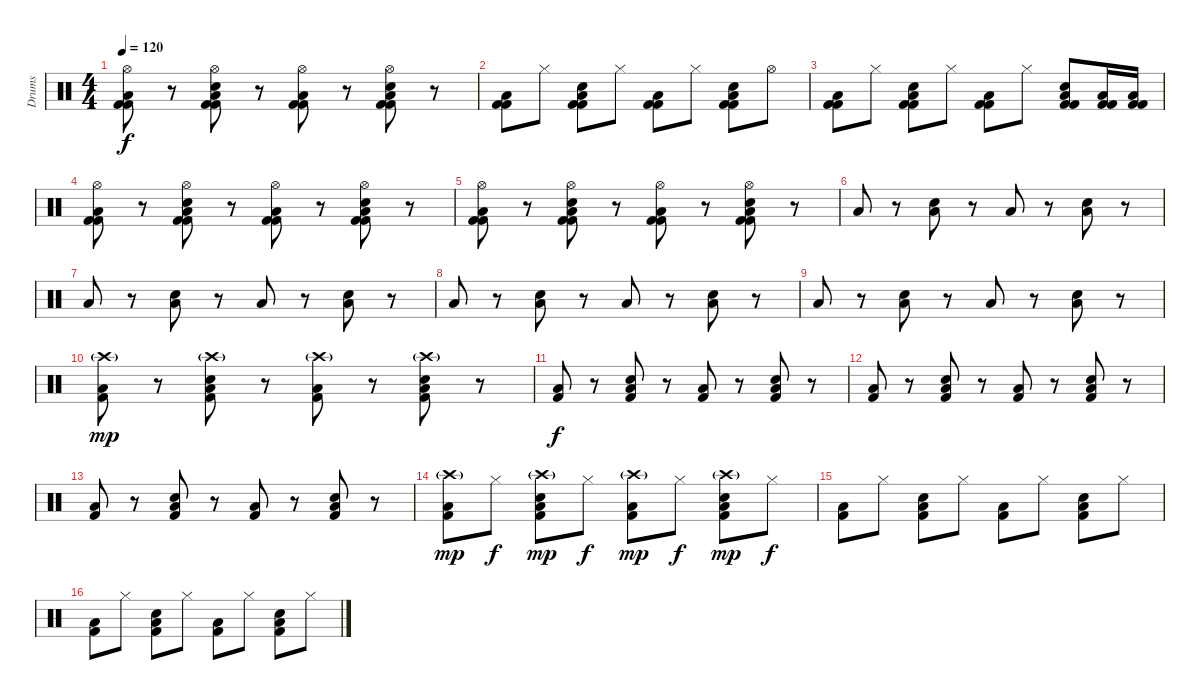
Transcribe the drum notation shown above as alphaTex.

\track ("Drums" "Drums") {instrument percussion}
\staff {score}
\articulation defaults
\ts (4 4)
\tempo 120
\clef neutral
\ks c
("Hi-Hat (open)" "Kick (hit) 2" "Low Floor Tom (hit)" "Kick (hit) 2").8{dy f} r.8 ("Hi-Hat (open)" "Electric Snare (hit)" "Kick (hit) 2" "Low Floor Tom (hit)" "Kick (hit) 2").8 r.8 ("Hi-Hat (open)" "Kick (hit) 2" "Low Floor Tom (hit)" "Kick (hit) 2").8 r.8 ("Hi-Hat (open)" "Electric Snare (hit)" "Kick (hit) 2" "Low Floor Tom (hit)" "Kick (hit) 2").8 r.8 |
("Kick (hit) 2" "Low Floor Tom (hit)" "Kick (hit) 2").8 "Hi-Hat (closed)".8 ("Electric Snare (hit)" "Kick (hit) 2" "Low Floor Tom (hit)" "Kick (hit) 2").8 "Hi-Hat (closed)".8 ("Kick (hit) 2" "Low Floor Tom (hit)" "Kick (hit) 2").8 "Hi-Hat (closed)".8 ("Electric Snare (hit)" "Kick (hit) 2" "Low Floor Tom (hit)" "Kick (hit) 2").8 "Hi-Hat (open)".8 |
("Kick (hit) 2" "Low Floor Tom (hit)" "Kick (hit) 2").8 "Hi-Hat (closed)".8 ("Electric Snare (hit)" "Kick (hit) 2" "Low Floor Tom (hit)" "Kick (hit) 2").8 "Hi-Hat (closed)".8 ("Kick (hit) 2" "Low Floor Tom (hit)" "Kick (hit) 2").8 "Hi-Hat (closed)".8 ("Electric Snare (hit)" "Kick (hit) 2" "Low Floor Tom (hit)" "Kick (hit) 2").8 ("Kick (hit) 2" "Low Floor Tom (hit)" "Kick (hit) 2").16 ("Kick (hit) 2" "Low Floor Tom (hit)" "Kick (hit) 2").16 |
("Hi-Hat (open)" "Kick (hit) 2" "Low Floor Tom (hit)" "Kick (hit) 2").8 r.8 ("Hi-Hat (open)" "Electric Snare (hit)" "Kick (hit) 2" "Low Floor Tom (hit)" "Kick (hit) 2").8 r.8 ("Hi-Hat (open)" "Kick (hit) 2" "Low Floor Tom (hit)" "Kick (hit) 2").8 r.8 ("Hi-Hat (open)" "Electric Snare (hit)" "Kick (hit) 2" "Low Floor Tom (hit)" "Kick (hit) 2").8 r.8 |
("Hi-Hat (open)" "Kick (hit) 2" "Low Floor Tom (hit)" "Kick (hit) 2").8 r.8 ("Hi-Hat (open)" "Electric Snare (hit)" "Kick (hit) 2" "Low Floor Tom (hit)" "Kick (hit) 2").8 r.8 ("Hi-Hat (open)" "Kick (hit) 2" "Low Floor Tom (hit)" "Kick (hit) 2").8 r.8 ("Hi-Hat (open)" "Electric Snare (hit)" "Kick (hit) 2" "Low Floor Tom (hit)" "Kick (hit) 2").8 r.8 |
"Low Floor Tom (hit)".8 r.8 ("Electric Snare (hit)" "Low Floor Tom (hit)").8 r.8 "Low Floor Tom (hit)".8 r.8 ("Electric Snare (hit)" "Low Floor Tom (hit)").8 r.8 |
"Low Floor Tom (hit)".8 r.8 ("Electric Snare (hit)" "Low Floor Tom (hit)").8 r.8 "Low Floor Tom (hit)".8 r.8 ("Electric Snare (hit)" "Low Floor Tom (hit)").8 r.8 |
"Low Floor Tom (hit)".8 r.8 ("Electric Snare (hit)" "Low Floor Tom (hit)").8 r.8 "Low Floor Tom (hit)".8 r.8 ("Electric Snare (hit)" "Low Floor Tom (hit)").8 r.8 |
"Low Floor Tom (hit)".8 r.8 ("Electric Snare (hit)" "Low Floor Tom (hit)").8 r.8 "Low Floor Tom (hit)".8 r.8 ("Electric Snare (hit)" "Low Floor Tom (hit)").8 r.8 |
("Crash high (hit)"{g} "Kick (hit) 2" "Low Floor Tom (hit)").8{dy mp} r.8 ("Crash high (hit)"{g} "Electric Snare (hit)" "Kick (hit) 2" "Low Floor Tom (hit)").8 r.8 ("Crash high (hit)"{g} "Kick (hit) 2" "Low Floor Tom (hit)").8 r.8 ("Crash high (hit)"{g} "Electric Snare (hit)" "Kick (hit) 2" "Low Floor Tom (hit)").8 r.8 |
("Kick (hit) 2" "Low Floor Tom (hit)").8{dy f} r.8 ("Electric Snare (hit)" "Kick (hit) 2" "Low Floor Tom (hit)").8 r.8 ("Kick (hit) 2" "Low Floor Tom (hit)").8 r.8 ("Electric Snare (hit)" "Kick (hit) 2" "Low Floor Tom (hit)").8 r.8 |
("Kick (hit) 2" "Low Floor Tom (hit)").8 r.8 ("Electric Snare (hit)" "Kick (hit) 2" "Low Floor Tom (hit)").8 r.8 ("Kick (hit) 2" "Low Floor Tom (hit)").8 r.8 ("Electric Snare (hit)" "Kick (hit) 2" "Low Floor Tom (hit)").8 r.8 |
("Kick (hit) 2" "Low Floor Tom (hit)").8 r.8 ("Electric Snare (hit)" "Kick (hit) 2" "Low Floor Tom (hit)").8 r.8 ("Kick (hit) 2" "Low Floor Tom (hit)").8 r.8 ("Electric Snare (hit)" "Kick (hit) 2" "Low Floor Tom (hit)").8 r.8 |
("Crash high (hit)"{g} "Kick (hit) 2" "Low Floor Tom (hit)").8{dy mp} "Hi-Hat (closed)".8{dy f} ("Crash high (hit)"{g} "Electric Snare (hit)" "Kick (hit) 2" "Low Floor Tom (hit)").8{dy mp} "Hi-Hat (closed)".8{dy f} ("Crash high (hit)"{g} "Kick (hit) 2" "Low Floor Tom (hit)").8{dy mp} "Hi-Hat (closed)".8{dy f} ("Crash high (hit)"{g} "Electric Snare (hit)" "Kick (hit) 2" "Low Floor Tom (hit)").8{dy mp} "Hi-Hat (closed)".8{dy f} |
("Kick (hit) 2" "Low Floor Tom (hit)").8 "Hi-Hat (closed)".8 ("Electric Snare (hit)" "Kick (hit) 2" "Low Floor Tom (hit)").8 "Hi-Hat (closed)".8 ("Kick (hit) 2" "Low Floor Tom (hit)").8 "Hi-Hat (closed)".8 ("Electric Snare (hit)" "Kick (hit) 2" "Low Floor Tom (hit)").8 "Hi-Hat (closed)".8 |
("Kick (hit) 2" "Low Floor Tom (hit)").8 "Hi-Hat (closed)".8 ("Electric Snare (hit)" "Kick (hit) 2" "Low Floor Tom (hit)").8 "Hi-Hat (closed)".8 ("Kick (hit) 2" "Low Floor Tom (hit)").8 "Hi-Hat (closed)".8 ("Electric Snare (hit)" "Kick (hit) 2" "Low Floor Tom (hit)").8 "Hi-Hat (closed)".8
